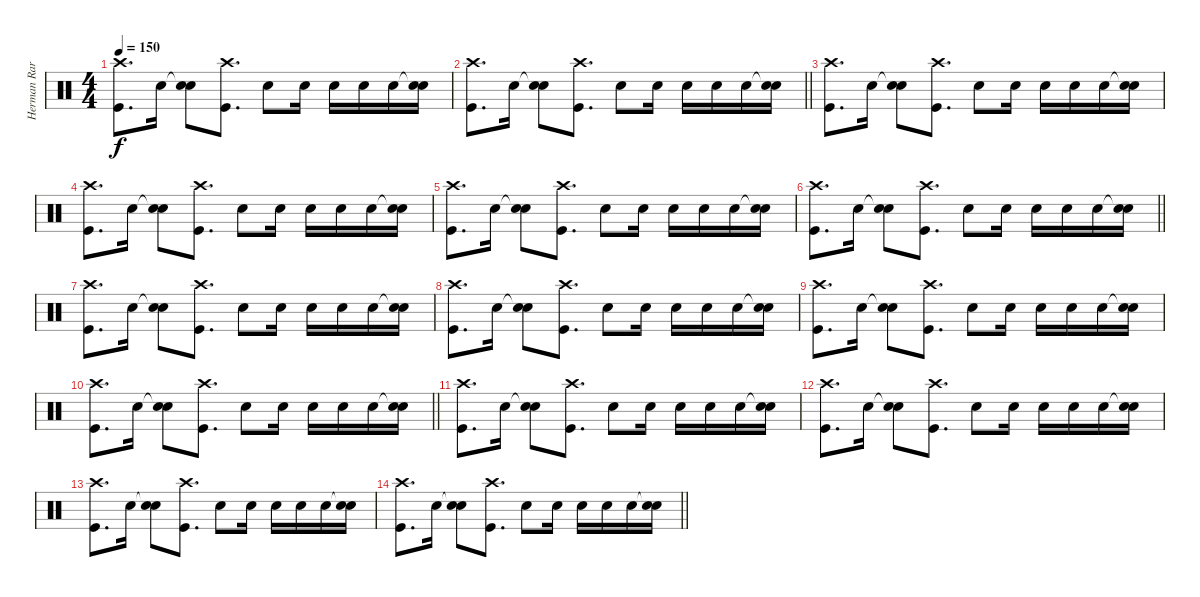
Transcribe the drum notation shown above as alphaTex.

\track ("Herman Rarebell" "Herman Rar") {instrument percussion}
\staff {score}
\articulation defaults
\ts (4 4)
\tempo 150
\clef neutral
\ks c
("Crash high (hit)" "Kick (hit)").8{d dy f} "Snare (hit) 2".16 ("Snare (hit)"{t} "Snare (hit) 2").8 ("Crash high (hit)" "Kick (hit)").8{d} "Snare (hit) 2".8 "Snare (hit) 2".16 "Snare (hit) 2".16 "Snare (hit) 2".16 "Snare (hit) 2".16 ("Snare (hit)"{t} "Snare (hit) 2").16 |
\barLineRight lightlight
("Crash high (hit)" "Kick (hit)").8{d} "Snare (hit) 2".16 ("Snare (hit)"{t} "Snare (hit) 2").8 ("Crash high (hit)" "Kick (hit)").8{d} "Snare (hit) 2".8 "Snare (hit) 2".16 "Snare (hit) 2".16 "Snare (hit) 2".16 "Snare (hit) 2".16 ("Snare (hit)"{t} "Snare (hit) 2").16 |
("Crash high (hit)" "Kick (hit)").8{d} "Snare (hit) 2".16 ("Snare (hit)"{t} "Snare (hit) 2").8 ("Crash high (hit)" "Kick (hit)").8{d} "Snare (hit) 2".8 "Snare (hit) 2".16 "Snare (hit) 2".16 "Snare (hit) 2".16 "Snare (hit) 2".16 ("Snare (hit)"{t} "Snare (hit) 2").16 |
("Crash high (hit)" "Kick (hit)").8{d} "Snare (hit) 2".16 ("Snare (hit)"{t} "Snare (hit) 2").8 ("Crash high (hit)" "Kick (hit)").8{d} "Snare (hit) 2".8 "Snare (hit) 2".16 "Snare (hit) 2".16 "Snare (hit) 2".16 "Snare (hit) 2".16 ("Snare (hit)"{t} "Snare (hit) 2").16 |
("Crash high (hit)" "Kick (hit)").8{d} "Snare (hit) 2".16 ("Snare (hit)"{t} "Snare (hit) 2").8 ("Crash high (hit)" "Kick (hit)").8{d} "Snare (hit) 2".8 "Snare (hit) 2".16 "Snare (hit) 2".16 "Snare (hit) 2".16 "Snare (hit) 2".16 ("Snare (hit)"{t} "Snare (hit) 2").16 |
\barLineRight lightlight
("Crash high (hit)" "Kick (hit)").8{d} "Snare (hit) 2".16 ("Snare (hit)"{t} "Snare (hit) 2").8 ("Crash high (hit)" "Kick (hit)").8{d} "Snare (hit) 2".8 "Snare (hit) 2".16 "Snare (hit) 2".16 "Snare (hit) 2".16 "Snare (hit) 2".16 ("Snare (hit)"{t} "Snare (hit) 2").16 |
("Crash high (hit)" "Kick (hit)").8{d} "Snare (hit) 2".16 ("Snare (hit)"{t} "Snare (hit) 2").8 ("Crash high (hit)" "Kick (hit)").8{d} "Snare (hit) 2".8 "Snare (hit) 2".16 "Snare (hit) 2".16 "Snare (hit) 2".16 "Snare (hit) 2".16 ("Snare (hit)"{t} "Snare (hit) 2").16 |
("Crash high (hit)" "Kick (hit)").8{d} "Snare (hit) 2".16 ("Snare (hit)"{t} "Snare (hit) 2").8 ("Crash high (hit)" "Kick (hit)").8{d} "Snare (hit) 2".8 "Snare (hit) 2".16 "Snare (hit) 2".16 "Snare (hit) 2".16 "Snare (hit) 2".16 ("Snare (hit)"{t} "Snare (hit) 2").16 |
("Crash high (hit)" "Kick (hit)").8{d} "Snare (hit) 2".16 ("Snare (hit)"{t} "Snare (hit) 2").8 ("Crash high (hit)" "Kick (hit)").8{d} "Snare (hit) 2".8 "Snare (hit) 2".16 "Snare (hit) 2".16 "Snare (hit) 2".16 "Snare (hit) 2".16 ("Snare (hit)"{t} "Snare (hit) 2").16 |
\barLineRight lightlight
("Crash high (hit)" "Kick (hit)").8{d} "Snare (hit) 2".16 ("Snare (hit)"{t} "Snare (hit) 2").8 ("Crash high (hit)" "Kick (hit)").8{d} "Snare (hit) 2".8 "Snare (hit) 2".16 "Snare (hit) 2".16 "Snare (hit) 2".16 "Snare (hit) 2".16 ("Snare (hit)"{t} "Snare (hit) 2").16 |
("Crash high (hit)" "Kick (hit)").8{d} "Snare (hit) 2".16 ("Snare (hit)"{t} "Snare (hit) 2").8 ("Crash high (hit)" "Kick (hit)").8{d} "Snare (hit) 2".8 "Snare (hit) 2".16 "Snare (hit) 2".16 "Snare (hit) 2".16 "Snare (hit) 2".16 ("Snare (hit)"{t} "Snare (hit) 2").16 |
("Crash high (hit)" "Kick (hit)").8{d} "Snare (hit) 2".16 ("Snare (hit)"{t} "Snare (hit) 2").8 ("Crash high (hit)" "Kick (hit)").8{d} "Snare (hit) 2".8 "Snare (hit) 2".16 "Snare (hit) 2".16 "Snare (hit) 2".16 "Snare (hit) 2".16 ("Snare (hit)"{t} "Snare (hit) 2").16 |
("Crash high (hit)" "Kick (hit)").8{d} "Snare (hit) 2".16 ("Snare (hit)"{t} "Snare (hit) 2").8 ("Crash high (hit)" "Kick (hit)").8{d} "Snare (hit) 2".8 "Snare (hit) 2".16 "Snare (hit) 2".16 "Snare (hit) 2".16 "Snare (hit) 2".16 ("Snare (hit)"{t} "Snare (hit) 2").16 |
\barLineRight lightlight
("Crash high (hit)" "Kick (hit)").8{d} "Snare (hit) 2".16 ("Snare (hit)"{t} "Snare (hit) 2").8 ("Crash high (hit)" "Kick (hit)").8{d} "Snare (hit) 2".8 "Snare (hit) 2".16 "Snare (hit) 2".16 "Snare (hit) 2".16 "Snare (hit) 2".16 ("Snare (hit)"{t} "Snare (hit) 2").16
